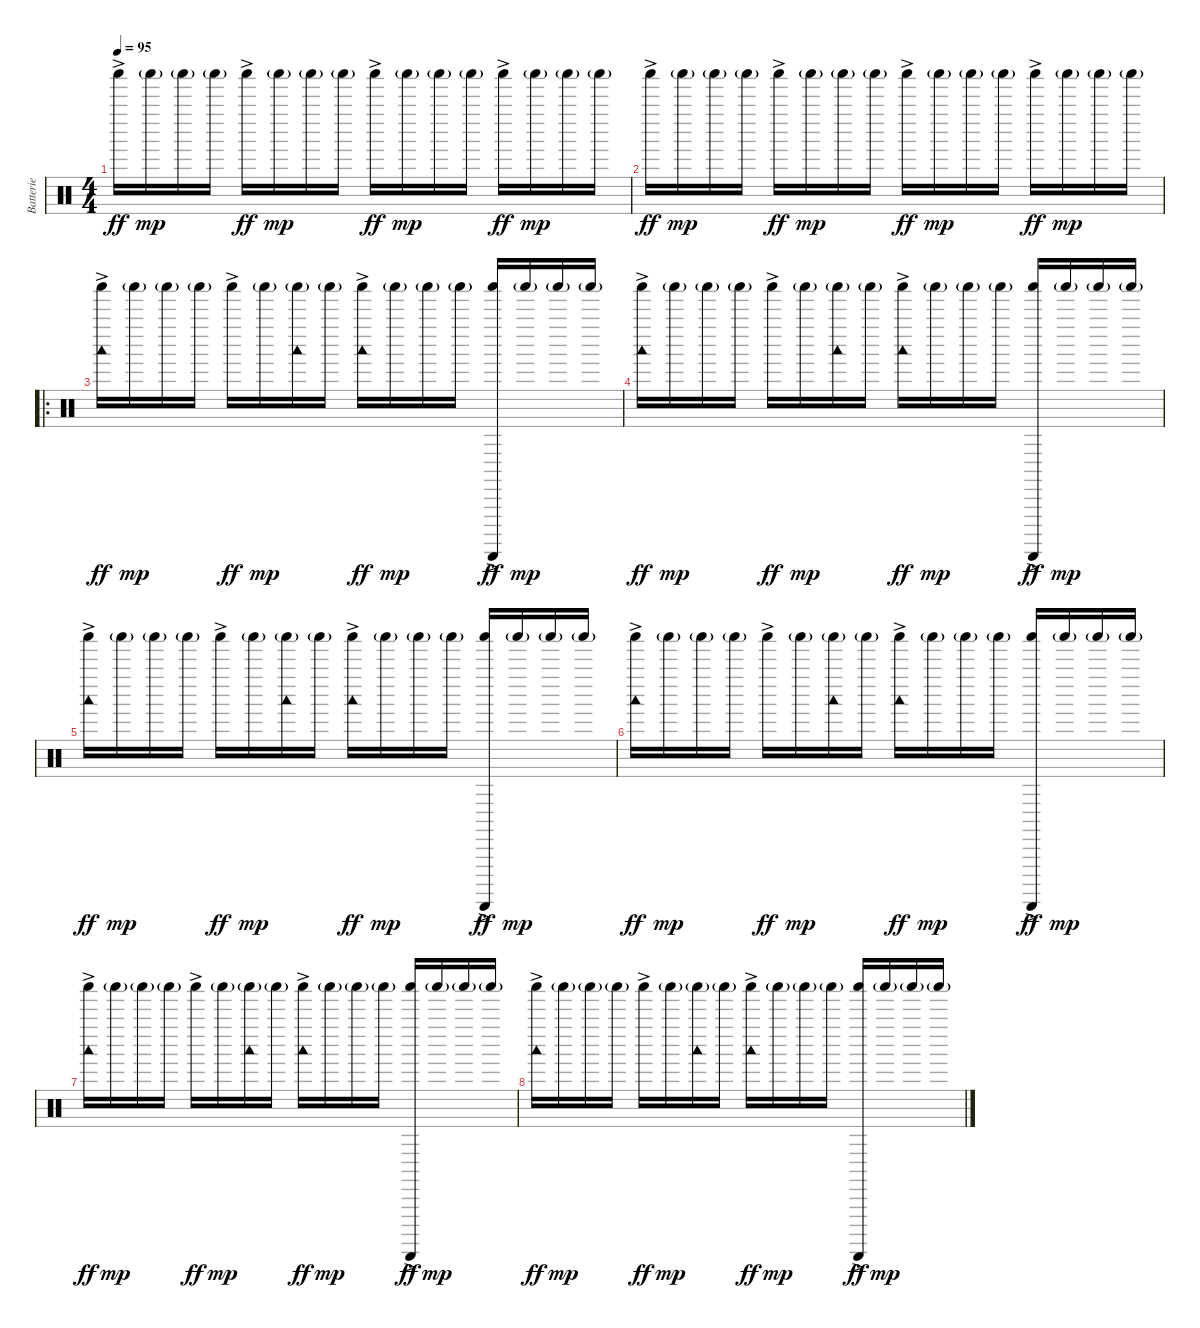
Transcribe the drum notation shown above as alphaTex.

\track ("Batterie" "Batterie") {instrument percussion}
\staff {score}
\articulation defaults
\ts (4 4)
\tempo 95
\clef neutral
\ks c "Shaker (hit)"{ac}.16{dy ff} "Shaker (hit)"{g}.16{dy mp} "Shaker (hit)"{g}.16 "Shaker (hit)"{g}.16 "Shaker (hit)"{ac}.16{dy ff} "Shaker (hit)"{g}.16{dy mp} "Shaker (hit)"{g}.16 "Shaker (hit)"{g}.16 "Shaker (hit)"{ac}.16{dy ff} "Shaker (hit)"{g}.16{dy mp} "Shaker (hit)"{g}.16 "Shaker (hit)"{g}.16 "Shaker (hit)"{ac}.16{dy ff} "Shaker (hit)"{g}.16{dy mp} "Shaker (hit)"{g}.16 "Shaker (hit)"{g}.16
|
"Shaker (hit)"{ac}.16{dy ff} "Shaker (hit)"{g}.16{dy mp} "Shaker (hit)"{g}.16 "Shaker (hit)"{g}.16 "Shaker (hit)"{ac}.16{dy ff} "Shaker (hit)"{g}.16{dy mp} "Shaker (hit)"{g}.16 "Shaker (hit)"{g}.16 "Shaker (hit)"{ac}.16{dy ff} "Shaker (hit)"{g}.16{dy mp} "Shaker (hit)"{g}.16 "Shaker (hit)"{g}.16 "Shaker (hit)"{ac}.16{dy ff} "Shaker (hit)"{g}.16{dy mp} "Shaker (hit)"{g}.16 "Shaker (hit)"{g}.16 |
\ro
("Woodblock low (hit)" "Shaker (hit)"{ac}).16{dy ff} "Shaker (hit)"{g}.16{dy mp} "Shaker (hit)"{g}.16 "Shaker (hit)"{g}.16 "Shaker (hit)"{ac}.16{dy ff} "Shaker (hit)"{g}.16{dy mp} ("Woodblock low (hit)" "Shaker (hit)"{g}).16 "Shaker (hit)"{g}.16 ("Woodblock low (hit)" "Shaker (hit)"{ac}).16{dy ff} "Shaker (hit)"{g}.16{dy mp} "Shaker (hit)"{g}.16 "Shaker (hit)"{g}.16 ("Guiro (scrap-return)" "Shaker (hit)"{ac}).16{dy ff} "Shaker (hit)"{g}.16{dy mp} "Shaker (hit)"{g}.16 "Shaker (hit)"{g}.16 |
("Woodblock low (hit)" "Shaker (hit)"{ac}).16{dy ff} "Shaker (hit)"{g}.16{dy mp} "Shaker (hit)"{g}.16 "Shaker (hit)"{g}.16 "Shaker (hit)"{ac}.16{dy ff} "Shaker (hit)"{g}.16{dy mp} ("Woodblock low (hit)" "Shaker (hit)"{g}).16 "Shaker (hit)"{g}.16 ("Woodblock low (hit)" "Shaker (hit)"{ac}).16{dy ff} "Shaker (hit)"{g}.16{dy mp} "Shaker (hit)"{g}.16 "Shaker (hit)"{g}.16 ("Guiro (scrap-return)" "Shaker (hit)"{ac}).16{dy ff} "Shaker (hit)"{g}.16{dy mp} "Shaker (hit)"{g}.16 "Shaker (hit)"{g}.16 |
("Woodblock low (hit)" "Shaker (hit)"{ac}).16{dy ff} "Shaker (hit)"{g}.16{dy mp} "Shaker (hit)"{g}.16 "Shaker (hit)"{g}.16 "Shaker (hit)"{ac}.16{dy ff} "Shaker (hit)"{g}.16{dy mp} ("Woodblock low (hit)" "Shaker (hit)"{g}).16 "Shaker (hit)"{g}.16 ("Woodblock low (hit)" "Shaker (hit)"{ac}).16{dy ff} "Shaker (hit)"{g}.16{dy mp} "Shaker (hit)"{g}.16 "Shaker (hit)"{g}.16 ("Guiro (scrap-return)" "Shaker (hit)"{ac}).16{dy ff} "Shaker (hit)"{g}.16{dy mp} "Shaker (hit)"{g}.16 "Shaker (hit)"{g}.16 |
("Woodblock low (hit)" "Shaker (hit)"{ac}).16{dy ff} "Shaker (hit)"{g}.16{dy mp} "Shaker (hit)"{g}.16 "Shaker (hit)"{g}.16 "Shaker (hit)"{ac}.16{dy ff} "Shaker (hit)"{g}.16{dy mp} ("Woodblock low (hit)" "Shaker (hit)"{g}).16 "Shaker (hit)"{g}.16 ("Woodblock low (hit)" "Shaker (hit)"{ac}).16{dy ff} "Shaker (hit)"{g}.16{dy mp} "Shaker (hit)"{g}.16 "Shaker (hit)"{g}.16 ("Guiro (scrap-return)" "Shaker (hit)"{ac}).16{dy ff} "Shaker (hit)"{g}.16{dy mp} "Shaker (hit)"{g}.16 "Shaker (hit)"{g}.16 |
("Woodblock low (hit)" "Shaker (hit)"{ac}).16{dy ff} "Shaker (hit)"{g}.16{dy mp} "Shaker (hit)"{g}.16 "Shaker (hit)"{g}.16 "Shaker (hit)"{ac}.16{dy ff} "Shaker (hit)"{g}.16{dy mp} ("Woodblock low (hit)" "Shaker (hit)"{g}).16 "Shaker (hit)"{g}.16 ("Woodblock low (hit)" "Shaker (hit)"{ac}).16{dy ff} "Shaker (hit)"{g}.16{dy mp} "Shaker (hit)"{g}.16 "Shaker (hit)"{g}.16 ("Guiro (scrap-return)" "Shaker (hit)"{ac}).16{dy ff} "Shaker (hit)"{g}.16{dy mp} "Shaker (hit)"{g}.16 "Shaker (hit)"{g}.16 |
("Woodblock low (hit)" "Shaker (hit)"{ac}).16{dy ff} "Shaker (hit)"{g}.16{dy mp} "Shaker (hit)"{g}.16 "Shaker (hit)"{g}.16 "Shaker (hit)"{ac}.16{dy ff} "Shaker (hit)"{g}.16{dy mp} ("Woodblock low (hit)" "Shaker (hit)"{g}).16 "Shaker (hit)"{g}.16 ("Woodblock low (hit)" "Shaker (hit)"{ac}).16{dy ff} "Shaker (hit)"{g}.16{dy mp} "Shaker (hit)"{g}.16 "Shaker (hit)"{g}.16 ("Guiro (scrap-return)" "Shaker (hit)"{ac}).16{dy ff} "Shaker (hit)"{g}.16{dy mp} "Shaker (hit)"{g}.16 "Shaker (hit)"{g}.16
